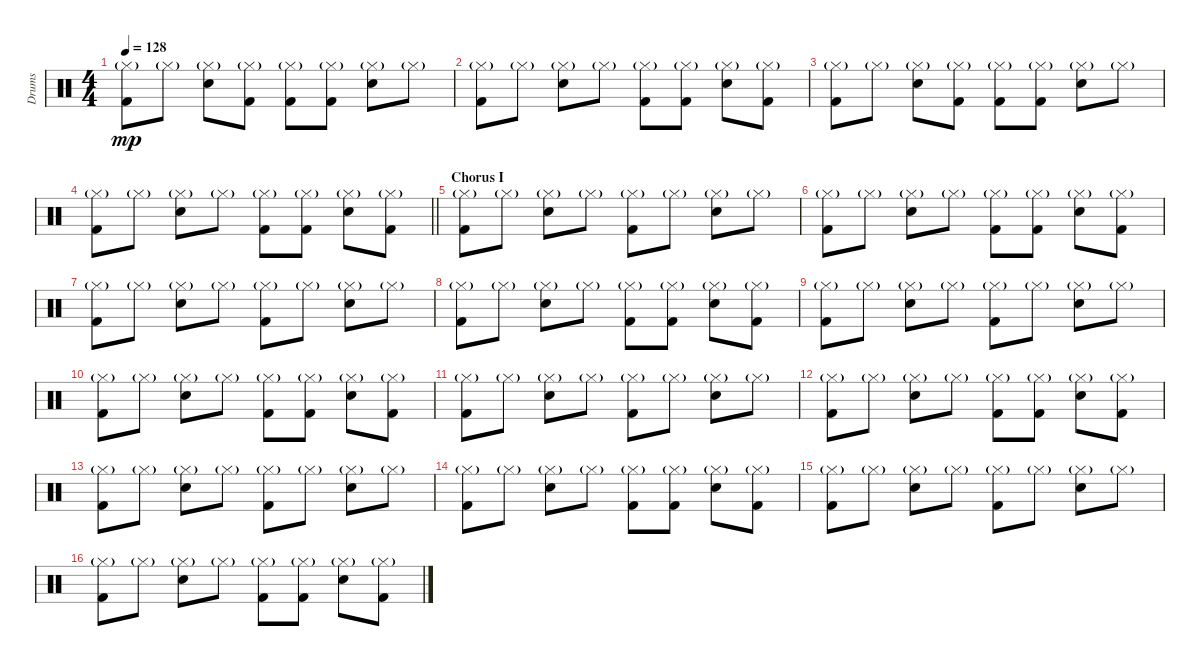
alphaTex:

\track ("Drums" "Drums") {instrument percussion}
\staff {score}
\articulation defaults
\ts (4 4)
\tempo 128
\clef neutral
\ks c
("Kick (hit) 2" "Hi-Hat (closed)"{g}).8{dy mp} "Hi-Hat (closed)"{g}.8 ("Snare (hit) 2" "Hi-Hat (closed)"{g}).8 ("Kick (hit) 2" "Hi-Hat (closed)"{g}).8 ("Kick (hit) 2" "Hi-Hat (closed)"{g}).8 ("Kick (hit) 2" "Hi-Hat (closed)"{g}).8 ("Snare (hit) 2" "Hi-Hat (closed)"{g}).8 "Hi-Hat (closed)"{g}.8 |
("Kick (hit) 2" "Hi-Hat (closed)"{g}).8 "Hi-Hat (closed)"{g}.8 ("Snare (hit) 2" "Hi-Hat (closed)"{g}).8 "Hi-Hat (closed)"{g}.8 ("Kick (hit) 2" "Hi-Hat (closed)"{g}).8 ("Kick (hit) 2" "Hi-Hat (closed)"{g}).8 ("Snare (hit) 2" "Hi-Hat (closed)"{g}).8 ("Kick (hit) 2" "Hi-Hat (closed)"{g}).8 |
("Kick (hit) 2" "Hi-Hat (closed)"{g}).8 "Hi-Hat (closed)"{g}.8 ("Snare (hit) 2" "Hi-Hat (closed)"{g}).8 ("Kick (hit) 2" "Hi-Hat (closed)"{g}).8 ("Kick (hit) 2" "Hi-Hat (closed)"{g}).8 ("Kick (hit) 2" "Hi-Hat (closed)"{g}).8 ("Snare (hit) 2" "Hi-Hat (closed)"{g}).8 "Hi-Hat (closed)"{g}.8 |
\barLineRight lightlight
("Kick (hit) 2" "Hi-Hat (closed)"{g}).8 "Hi-Hat (closed)"{g}.8 ("Snare (hit) 2" "Hi-Hat (closed)"{g}).8 "Hi-Hat (closed)"{g}.8 ("Kick (hit) 2" "Hi-Hat (closed)"{g}).8 ("Kick (hit) 2" "Hi-Hat (closed)"{g}).8 ("Snare (hit) 2" "Hi-Hat (closed)"{g}).8 ("Kick (hit) 2" "Hi-Hat (closed)"{g}).8 |
\section ("" "Chorus I")
("Kick (hit) 2" "Hi-Hat (closed)"{g}).8 "Hi-Hat (closed)"{g}.8 ("Snare (hit) 2" "Hi-Hat (closed)"{g}).8 "Hi-Hat (closed)"{g}.8 ("Kick (hit) 2" "Hi-Hat (closed)"{g}).8 "Hi-Hat (closed)"{g}.8 ("Snare (hit) 2" "Hi-Hat (closed)"{g}).8 "Hi-Hat (closed)"{g}.8 |
("Kick (hit) 2" "Hi-Hat (closed)"{g}).8 "Hi-Hat (closed)"{g}.8 ("Snare (hit) 2" "Hi-Hat (closed)"{g}).8 "Hi-Hat (closed)"{g}.8 ("Kick (hit) 2" "Hi-Hat (closed)"{g}).8 ("Kick (hit) 2" "Hi-Hat (closed)"{g}).8 ("Snare (hit) 2" "Hi-Hat (closed)"{g}).8 ("Kick (hit) 2" "Hi-Hat (closed)"{g}).8 |
("Kick (hit) 2" "Hi-Hat (closed)"{g}).8 "Hi-Hat (closed)"{g}.8 ("Snare (hit) 2" "Hi-Hat (closed)"{g}).8 "Hi-Hat (closed)"{g}.8 ("Kick (hit) 2" "Hi-Hat (closed)"{g}).8 "Hi-Hat (closed)"{g}.8 ("Snare (hit) 2" "Hi-Hat (closed)"{g}).8 "Hi-Hat (closed)"{g}.8 |
("Kick (hit) 2" "Hi-Hat (closed)"{g}).8 "Hi-Hat (closed)"{g}.8 ("Snare (hit) 2" "Hi-Hat (closed)"{g}).8 "Hi-Hat (closed)"{g}.8 ("Kick (hit) 2" "Hi-Hat (closed)"{g}).8 ("Kick (hit) 2" "Hi-Hat (closed)"{g}).8 ("Snare (hit) 2" "Hi-Hat (closed)"{g}).8 ("Kick (hit) 2" "Hi-Hat (closed)"{g}).8 |
("Kick (hit) 2" "Hi-Hat (closed)"{g}).8 "Hi-Hat (closed)"{g}.8 ("Snare (hit) 2" "Hi-Hat (closed)"{g}).8 "Hi-Hat (closed)"{g}.8 ("Kick (hit) 2" "Hi-Hat (closed)"{g}).8 "Hi-Hat (closed)"{g}.8 ("Snare (hit) 2" "Hi-Hat (closed)"{g}).8 "Hi-Hat (closed)"{g}.8 |
("Kick (hit) 2" "Hi-Hat (closed)"{g}).8 "Hi-Hat (closed)"{g}.8 ("Snare (hit) 2" "Hi-Hat (closed)"{g}).8 "Hi-Hat (closed)"{g}.8 ("Kick (hit) 2" "Hi-Hat (closed)"{g}).8 ("Kick (hit) 2" "Hi-Hat (closed)"{g}).8 ("Snare (hit) 2" "Hi-Hat (closed)"{g}).8 ("Kick (hit) 2" "Hi-Hat (closed)"{g}).8 |
("Kick (hit) 2" "Hi-Hat (closed)"{g}).8 "Hi-Hat (closed)"{g}.8 ("Snare (hit) 2" "Hi-Hat (closed)"{g}).8 "Hi-Hat (closed)"{g}.8 ("Kick (hit) 2" "Hi-Hat (closed)"{g}).8 "Hi-Hat (closed)"{g}.8 ("Snare (hit) 2" "Hi-Hat (closed)"{g}).8 "Hi-Hat (closed)"{g}.8 |
("Kick (hit) 2" "Hi-Hat (closed)"{g}).8 "Hi-Hat (closed)"{g}.8 ("Snare (hit) 2" "Hi-Hat (closed)"{g}).8 "Hi-Hat (closed)"{g}.8 ("Kick (hit) 2" "Hi-Hat (closed)"{g}).8 ("Kick (hit) 2" "Hi-Hat (closed)"{g}).8 ("Snare (hit) 2" "Hi-Hat (closed)"{g}).8 ("Kick (hit) 2" "Hi-Hat (closed)"{g}).8 |
("Kick (hit) 2" "Hi-Hat (closed)"{g}).8 "Hi-Hat (closed)"{g}.8 ("Snare (hit) 2" "Hi-Hat (closed)"{g}).8 "Hi-Hat (closed)"{g}.8 ("Kick (hit) 2" "Hi-Hat (closed)"{g}).8 "Hi-Hat (closed)"{g}.8 ("Snare (hit) 2" "Hi-Hat (closed)"{g}).8 "Hi-Hat (closed)"{g}.8 |
("Kick (hit) 2" "Hi-Hat (closed)"{g}).8 "Hi-Hat (closed)"{g}.8 ("Snare (hit) 2" "Hi-Hat (closed)"{g}).8 "Hi-Hat (closed)"{g}.8 ("Kick (hit) 2" "Hi-Hat (closed)"{g}).8 ("Kick (hit) 2" "Hi-Hat (closed)"{g}).8 ("Snare (hit) 2" "Hi-Hat (closed)"{g}).8 ("Kick (hit) 2" "Hi-Hat (closed)"{g}).8 |
("Kick (hit) 2" "Hi-Hat (closed)"{g}).8 "Hi-Hat (closed)"{g}.8 ("Snare (hit) 2" "Hi-Hat (closed)"{g}).8 "Hi-Hat (closed)"{g}.8 ("Kick (hit) 2" "Hi-Hat (closed)"{g}).8 "Hi-Hat (closed)"{g}.8 ("Snare (hit) 2" "Hi-Hat (closed)"{g}).8 "Hi-Hat (closed)"{g}.8 |
("Kick (hit) 2" "Hi-Hat (closed)"{g}).8 "Hi-Hat (closed)"{g}.8 ("Snare (hit) 2" "Hi-Hat (closed)"{g}).8 "Hi-Hat (closed)"{g}.8 ("Kick (hit) 2" "Hi-Hat (closed)"{g}).8 ("Kick (hit) 2" "Hi-Hat (closed)"{g}).8 ("Snare (hit) 2" "Hi-Hat (closed)"{g}).8 ("Kick (hit) 2" "Hi-Hat (closed)"{g}).8
